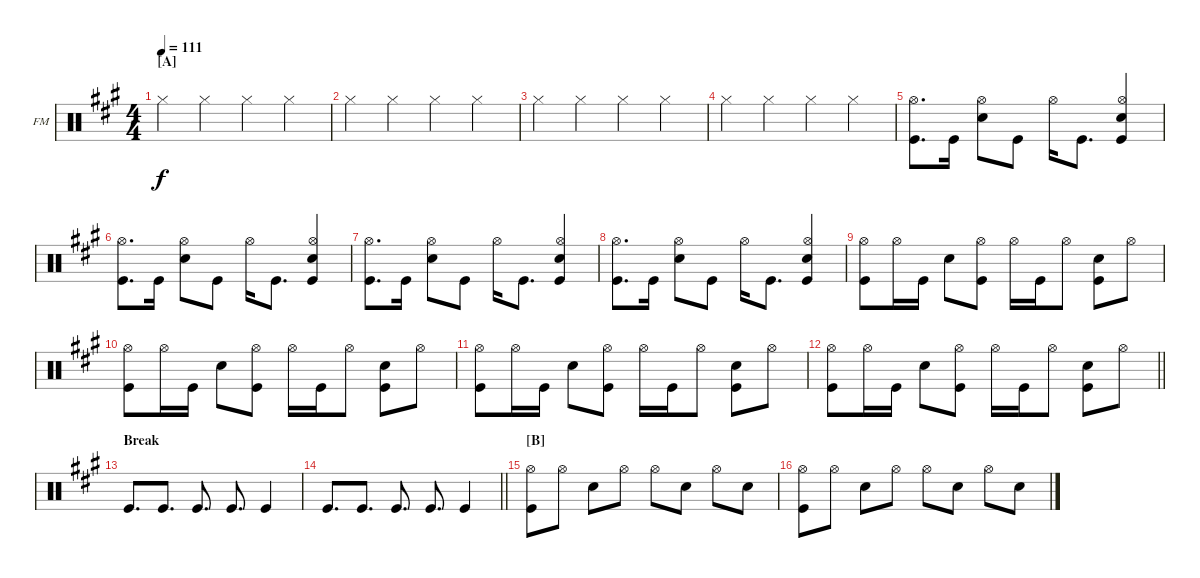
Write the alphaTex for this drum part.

\defaultSystemsLayout 4
\bracketExtendMode groupsimilarinstruments
\firstSystemTrackNameOrientation horizontal
\otherSystemsTrackNameOrientation horizontal
\track ("Fabrizio Moretti" "FM") {instrument percussion}
\staff {score}
\articulation defaults
\ts (4 4)
\section ("A" "")
\tempo 111
\clef neutral
\ks a "Hi-Hat (closed)".4{dy f} "Hi-Hat (closed)".4 "Hi-Hat (closed)".4 "Hi-Hat (closed)".4
|
"Hi-Hat (closed)".4 "Hi-Hat (closed)".4 "Hi-Hat (closed)".4 "Hi-Hat (closed)".4 |
"Hi-Hat (closed)".4 "Hi-Hat (closed)".4 "Hi-Hat (closed)".4 "Hi-Hat (closed)".4 |
"Hi-Hat (closed)".4 "Hi-Hat (closed)".4 "Hi-Hat (closed)".4 "Hi-Hat (closed)".4 |
("Kick (hit)" "Hi-Hat (open)").8{d} "Kick (hit)".16 ("Snare (hit) 2" "Hi-Hat (open)").8 "Kick (hit)".8 "Hi-Hat (open)".16 "Kick (hit)".8{d} ("Snare (hit) 2" "Kick (hit)" "Hi-Hat (open)").4 |
("Kick (hit)" "Hi-Hat (open)").8{d} "Kick (hit)".16 ("Snare (hit) 2" "Hi-Hat (open)").8 "Kick (hit)".8 "Hi-Hat (open)".16 "Kick (hit)".8{d} ("Snare (hit) 2" "Kick (hit)" "Hi-Hat (open)").4 |
("Kick (hit)" "Hi-Hat (open)").8{d} "Kick (hit)".16 ("Snare (hit) 2" "Hi-Hat (open)").8 "Kick (hit)".8 "Hi-Hat (open)".16 "Kick (hit)".8{d} ("Snare (hit) 2" "Kick (hit)" "Hi-Hat (open)").4 |
("Kick (hit)" "Hi-Hat (open)").8{d} "Kick (hit)".16 ("Snare (hit) 2" "Hi-Hat (open)").8 "Kick (hit)".8 "Hi-Hat (open)".16 "Kick (hit)".8{d} ("Snare (hit) 2" "Kick (hit)" "Hi-Hat (open)").4 |
("Kick (hit)" "Hi-Hat (open)").8 "Hi-Hat (open)".16 "Kick (hit)".16 "Snare (hit) 2".8 ("Kick (hit)" "Hi-Hat (open)").8 "Hi-Hat (open)".16 "Kick (hit)".16 "Hi-Hat (open)".8 ("Snare (hit) 2" "Kick (hit)").8 "Hi-Hat (open)".8 |
("Kick (hit)" "Hi-Hat (open)").8 "Hi-Hat (open)".16 "Kick (hit)".16 "Snare (hit) 2".8 ("Kick (hit)" "Hi-Hat (open)").8 "Hi-Hat (open)".16 "Kick (hit)".16 "Hi-Hat (open)".8 ("Snare (hit) 2" "Kick (hit)").8 "Hi-Hat (open)".8 |
("Kick (hit)" "Hi-Hat (open)").8 "Hi-Hat (open)".16 "Kick (hit)".16 "Snare (hit) 2".8 ("Kick (hit)" "Hi-Hat (open)").8 "Hi-Hat (open)".16 "Kick (hit)".16 "Hi-Hat (open)".8 ("Snare (hit) 2" "Kick (hit)").8 "Hi-Hat (open)".8 |
\barLineRight lightlight
("Kick (hit)" "Hi-Hat (open)").8 "Hi-Hat (open)".16 "Kick (hit)".16 "Snare (hit) 2".8 ("Kick (hit)" "Hi-Hat (open)").8 "Hi-Hat (open)".16 "Kick (hit)".16 "Hi-Hat (open)".8 ("Snare (hit) 2" "Kick (hit)").8 "Hi-Hat (open)".8 |
\section ("" "Break")
"Kick (hit)".8{d} "Kick (hit)".8{d} "Kick (hit)".8{d} "Kick (hit)".8{d} "Kick (hit)".4 |
\barLineRight lightlight "Kick (hit)".8{d} "Kick (hit)".8{d} "Kick (hit)".8{d} "Kick (hit)".8{d} "Kick (hit)".4
|
\section ("B" "")
("Kick (hit)" "Hi-Hat (open)").8 "Hi-Hat (open)".8 "Snare (hit) 2".8 "Hi-Hat (open)".8 "Hi-Hat (open)".8 "Snare (hit) 2".8 "Hi-Hat (open)".8 "Snare (hit) 2".8 |
("Kick (hit)" "Hi-Hat (open)").8 "Hi-Hat (open)".8 "Snare (hit) 2".8 "Hi-Hat (open)".8 "Hi-Hat (open)".8 "Snare (hit) 2".8 "Hi-Hat (open)".8 "Snare (hit) 2".8
